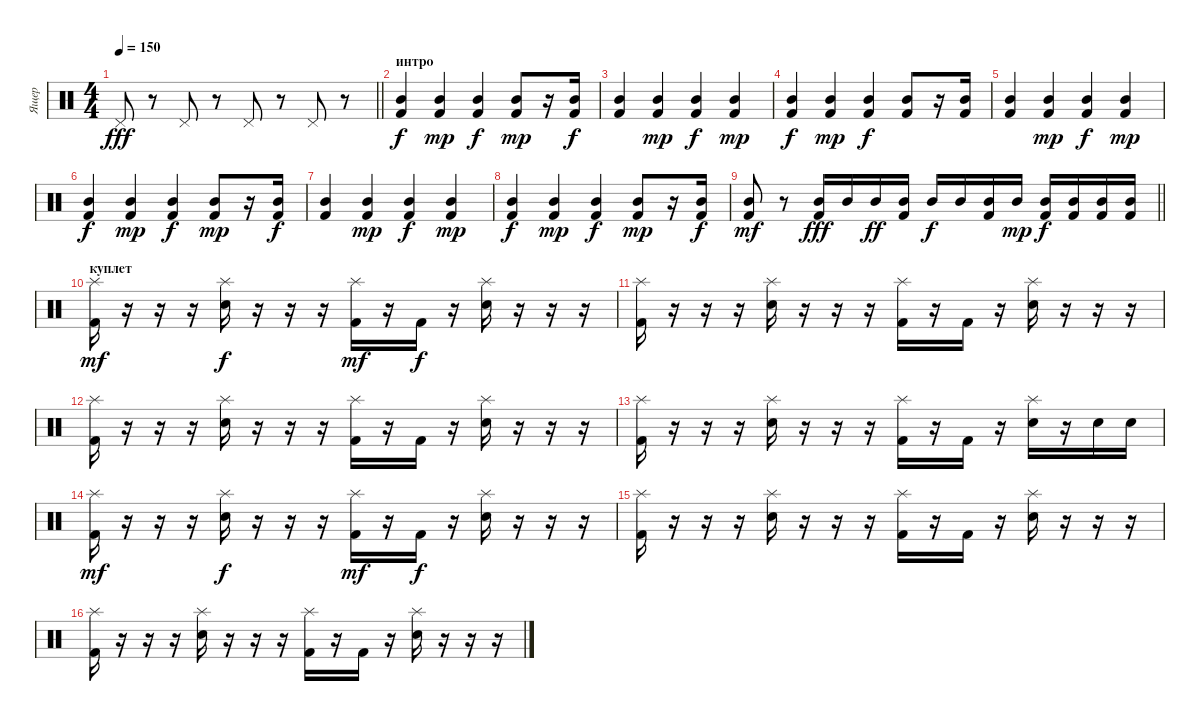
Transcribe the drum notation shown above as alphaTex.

\track ("Ящер" "Ящер") {instrument percussion}
\staff {score}
\articulation defaults
\ts (4 4)
\tempo 150
\clef neutral
\barLineRight lightlight
\ks c "Pedal Hi-Hat (hit)".8{dy fff}
r.8 "Pedal Hi-Hat (hit)".8 r.8 "Pedal Hi-Hat (hit)".8 r.8 "Pedal Hi-Hat (hit)".8 r.8 |
\section ("" "интро")
("Kick (hit) 2" "Mid Tom (hit)").4{dy f} ("Kick (hit) 2" "Mid Tom (hit)").4{dy mp} ("Kick (hit) 2" "Mid Tom (hit)").4{dy f} ("Kick (hit) 2" "Mid Tom (hit)").8{dy mp} r.16 ("Kick (hit) 2" "Mid Tom (hit)").16{dy f} |
("Kick (hit) 2" "Mid Tom (hit)").4 ("Kick (hit) 2" "Mid Tom (hit)").4{dy mp} ("Kick (hit) 2" "Mid Tom (hit)").4{dy f} ("Kick (hit) 2" "Mid Tom (hit)").4{dy mp} |
("Kick (hit) 2" "Mid Tom (hit)").4{dy f} ("Kick (hit) 2" "Mid Tom (hit)").4{dy mp} ("Kick (hit) 2" "Mid Tom (hit)").4{dy f} ("Kick (hit) 2" "Mid Tom (hit)").8 r.16 ("Kick (hit) 2" "Mid Tom (hit)").16 |
("Kick (hit) 2" "Mid Tom (hit)").4 ("Kick (hit) 2" "Mid Tom (hit)").4{dy mp} ("Kick (hit) 2" "Mid Tom (hit)").4{dy f} ("Kick (hit) 2" "Mid Tom (hit)").4{dy mp} |
("Kick (hit) 2" "Mid Tom (hit)").4{dy f} ("Kick (hit) 2" "Mid Tom (hit)").4{dy mp} ("Kick (hit) 2" "Mid Tom (hit)").4{dy f} ("Kick (hit) 2" "Mid Tom (hit)").8{dy mp} r.16 ("Kick (hit) 2" "Mid Tom (hit)").16{dy f} |
("Kick (hit) 2" "Mid Tom (hit)").4 ("Kick (hit) 2" "Mid Tom (hit)").4{dy mp} ("Kick (hit) 2" "Mid Tom (hit)").4{dy f} ("Kick (hit) 2" "Mid Tom (hit)").4{dy mp} |
("Kick (hit) 2" "Mid Tom (hit)").4{dy f} ("Kick (hit) 2" "Mid Tom (hit)").4{dy mp} ("Kick (hit) 2" "Mid Tom (hit)").4{dy f} ("Kick (hit) 2" "Mid Tom (hit)").8{dy mp} r.16 ("Kick (hit) 2" "Mid Tom (hit)").16{dy f} |
\barLineRight lightlight
("Kick (hit) 2" "Mid Tom (hit)").8{dy mf} r.8 ("Kick (hit) 2" "Mid Tom (hit)").16{dy fff} "Mid Tom (hit)".16 "Mid Tom (hit)".16{dy ff} ("Kick (hit) 2" "Mid Tom (hit)").16 "Mid Tom (hit)".16{dy f} "Mid Tom (hit)".16 ("Kick (hit) 2" "Mid Tom (hit)").16 "Mid Tom (hit)".16{dy mp} ("Kick (hit) 2" "Mid Tom (hit)").16{dy f} ("Kick (hit) 2" "Mid Tom (hit)").16 ("Kick (hit) 2" "Mid Tom (hit)").16 ("Kick (hit) 2" "Mid Tom (hit)").16 |
\section ("" "куплет")
("Kick (hit) 2" "Splash (hit)").16{dy mf} r.16 r.16 r.16 ("Snare (hit) 2" "Splash (hit)").16{dy f} r.16 r.16 r.16 ("Kick (hit) 2" "Splash (hit)").16{dy mf} r.16 "Kick (hit) 2".16{dy f} r.16 ("Snare (hit) 2" "Splash (hit)").16 r.16 r.16 r.16 |
("Kick (hit) 2" "Splash (hit)").16 r.16 r.16 r.16 ("Snare (hit) 2" "Splash (hit)").16 r.16 r.16 r.16 ("Kick (hit) 2" "Splash (hit)").16 r.16 "Kick (hit) 2".16 r.16 ("Snare (hit) 2" "Splash (hit)").16 r.16 r.16 r.16 |
("Kick (hit) 2" "Splash (hit)").16 r.16 r.16 r.16 ("Snare (hit) 2" "Splash (hit)").16 r.16 r.16 r.16 ("Kick (hit) 2" "Splash (hit)").16 r.16 "Kick (hit) 2".16 r.16 ("Snare (hit) 2" "Splash (hit)").16 r.16 r.16 r.16 |
("Kick (hit) 2" "Splash (hit)").16 r.16 r.16 r.16 ("Snare (hit) 2" "Splash (hit)").16 r.16 r.16 r.16 ("Kick (hit) 2" "Splash (hit)").16 r.16 "Kick (hit) 2".16 r.16 ("Snare (hit) 2" "Splash (hit)").16 r.16 "Snare (hit) 2".16 "Snare (hit) 2".16 |
("Kick (hit) 2" "Splash (hit)").16{dy mf} r.16 r.16 r.16 ("Snare (hit) 2" "Splash (hit)").16{dy f} r.16 r.16 r.16 ("Kick (hit) 2" "Splash (hit)").16{dy mf} r.16 "Kick (hit) 2".16{dy f} r.16 ("Snare (hit) 2" "Splash (hit)").16 r.16 r.16 r.16 |
("Kick (hit) 2" "Splash (hit)").16 r.16 r.16 r.16 ("Snare (hit) 2" "Splash (hit)").16 r.16 r.16 r.16 ("Kick (hit) 2" "Splash (hit)").16 r.16 "Kick (hit) 2".16 r.16 ("Snare (hit) 2" "Splash (hit)").16 r.16 r.16 r.16 |
("Kick (hit) 2" "Splash (hit)").16 r.16 r.16 r.16 ("Snare (hit) 2" "Splash (hit)").16 r.16 r.16 r.16 ("Kick (hit) 2" "Splash (hit)").16 r.16 "Kick (hit) 2".16 r.16 ("Snare (hit) 2" "Splash (hit)").16 r.16 r.16 r.16
